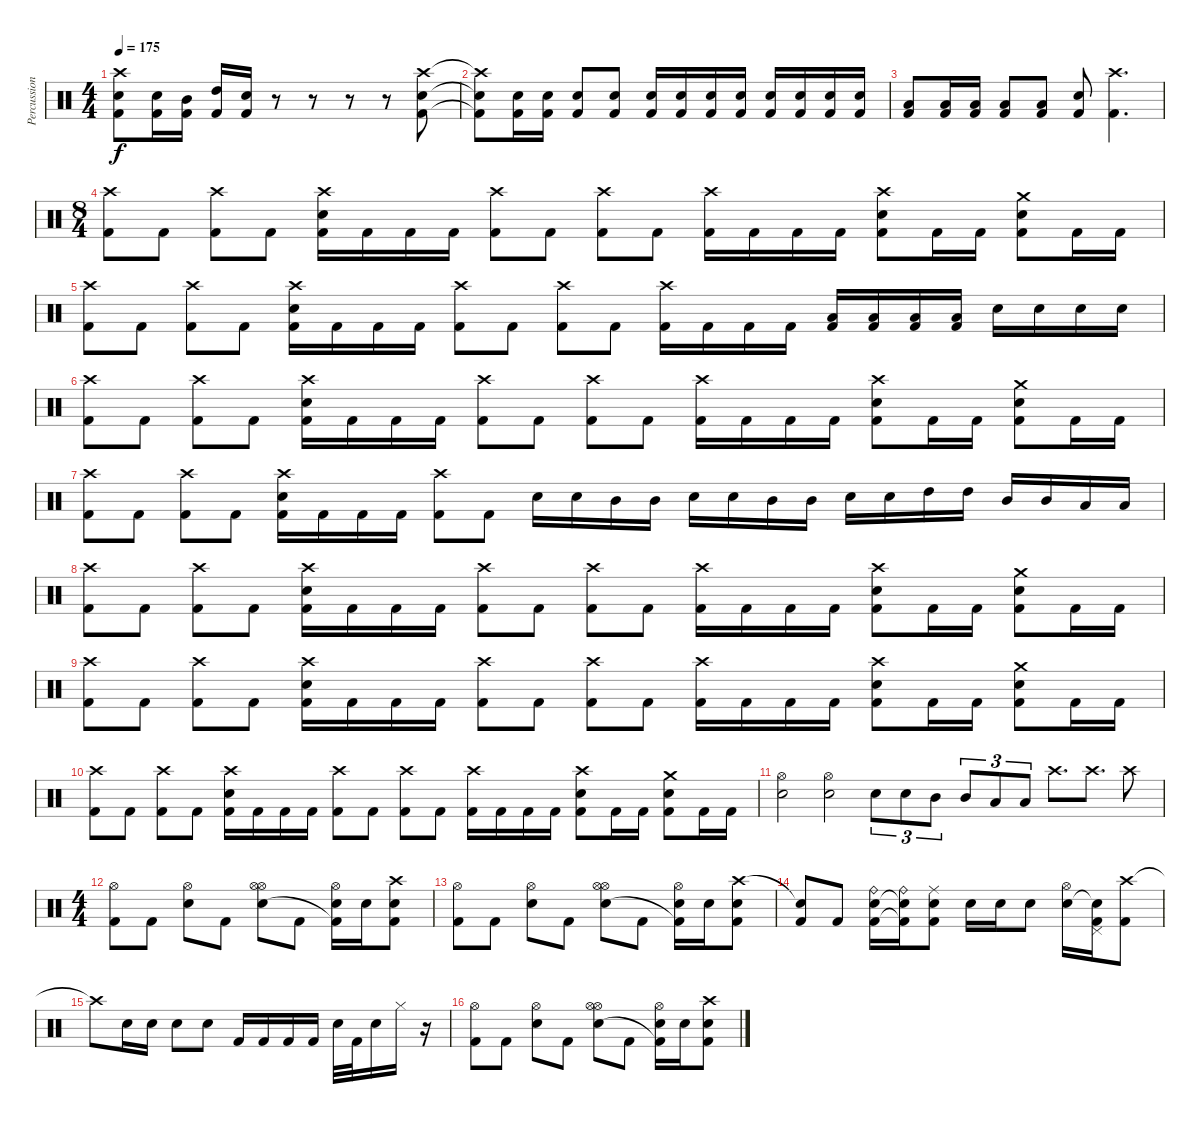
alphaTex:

\track ("Percussion" "Percussion") {instrument percussion}
\staff {score}
\articulation defaults
\ts (4 4)
\tempo 175
\clef neutral
\ks c
("Crash high (hit)"{t} "Snare (hit) 2"{t} "Kick (hit) 2"{t}).8{dy f} ("Snare (hit) 2" "Kick (hit) 2").16 ("Mid Tom (hit)" "Kick (hit) 2").16 ("High Tom (hit)" "Kick (hit) 2").16 ("Snare (hit) 2" "Kick (hit) 2").16 r.8 r.8 r.8 r.8 ("Crash high (hit)" "Snare (hit) 2" "Kick (hit) 2").8 |
("Crash high (hit)"{t} "Snare (hit) 2"{t} "Kick (hit) 2"{t}).8 ("Electric Snare (hit)" "Kick (hit) 2").16 ("Electric Snare (hit)" "Kick (hit) 2").16 ("Electric Snare (hit)" "Kick (hit) 2").8 ("Electric Snare (hit)" "Kick (hit) 2").8 ("Electric Snare (hit)" "Kick (hit) 2").16 ("Electric Snare (hit)" "Kick (hit) 2").16 ("Electric Snare (hit)" "Kick (hit) 2").16 ("Electric Snare (hit)" "Kick (hit) 2").16 ("Electric Snare (hit)" "Kick (hit) 2").16 ("Electric Snare (hit)" "Kick (hit) 2").16 ("Electric Snare (hit)" "Kick (hit) 2").16 ("Electric Snare (hit)" "Kick (hit) 2").16 |
("Low Tom (hit)" "Kick (hit) 2").8 ("Low Tom (hit)" "Kick (hit) 2").16 ("Low Tom (hit)" "Kick (hit) 2").16 ("Low Tom (hit)" "Kick (hit) 2").8 ("Low Tom (hit)" "Kick (hit) 2").8 ("Electric Snare (hit)" "Kick (hit) 2").8 ("Crash high (hit)" "Kick (hit) 2").4{d} |
\ts (8 4)
("Crash high (hit)" "Kick (hit) 2").8 "Kick (hit) 2".8 ("Crash high (hit)" "Kick (hit) 2").8 "Kick (hit) 2".8 ("Crash high (hit)" "Electric Snare (hit)" "Kick (hit) 2").16 "Kick (hit) 2".16 "Kick (hit) 2".16 "Kick (hit) 2".16 ("Crash high (hit)" "Kick (hit) 2").8 "Kick (hit) 2".8 ("Crash high (hit)" "Kick (hit) 2").8 "Kick (hit) 2".8 ("Crash high (hit)" "Kick (hit) 2").16 "Kick (hit) 2".16 "Kick (hit) 2".16 "Kick (hit) 2".16 ("Crash high (hit)" "Electric Snare (hit)" "Kick (hit) 2").8 "Kick (hit) 2".16 "Kick (hit) 2".16 ("Crash medium (hit)" "Electric Snare (hit)" "Kick (hit) 2").8 "Kick (hit) 2".16 "Kick (hit) 2".16 |
("Crash high (hit)" "Kick (hit) 2").8 "Kick (hit) 2".8 ("Crash high (hit)" "Kick (hit) 2").8 "Kick (hit) 2".8 ("Crash high (hit)" "Electric Snare (hit)" "Kick (hit) 2").16 "Kick (hit) 2".16 "Kick (hit) 2".16 "Kick (hit) 2".16 ("Crash high (hit)" "Kick (hit) 2").8 "Kick (hit) 2".8 ("Crash high (hit)" "Kick (hit) 2").8 "Kick (hit) 2".8 ("Crash high (hit)" "Kick (hit) 2").16 "Kick (hit) 2".16 "Kick (hit) 2".16 "Kick (hit) 2".16 ("Low Tom (hit)" "Kick (hit) 2").16 ("Low Tom (hit)" "Kick (hit) 2").16 ("Low Tom (hit)" "Kick (hit) 2").16 ("Low Tom (hit)" "Kick (hit) 2").16 "Electric Snare (hit)".16 "Electric Snare (hit)".16 "Electric Snare (hit)".16 "Electric Snare (hit)".16 |
("Crash high (hit)" "Kick (hit) 2").8 "Kick (hit) 2".8 ("Crash high (hit)" "Kick (hit) 2").8 "Kick (hit) 2".8 ("Crash high (hit)" "Electric Snare (hit)" "Kick (hit) 2").16 "Kick (hit) 2".16 "Kick (hit) 2".16 "Kick (hit) 2".16 ("Crash high (hit)" "Kick (hit) 2").8 "Kick (hit) 2".8 ("Crash high (hit)" "Kick (hit) 2").8 "Kick (hit) 2".8 ("Crash high (hit)" "Kick (hit) 2").16 "Kick (hit) 2".16 "Kick (hit) 2".16 "Kick (hit) 2".16 ("Crash high (hit)" "Electric Snare (hit)" "Kick (hit) 2").8 "Kick (hit) 2".16 "Kick (hit) 2".16 ("Crash medium (hit)" "Electric Snare (hit)" "Kick (hit) 2").8 "Kick (hit) 2".16 "Kick (hit) 2".16 |
("Crash high (hit)" "Kick (hit) 2").8 "Kick (hit) 2".8 ("Crash high (hit)" "Kick (hit) 2").8 "Kick (hit) 2".8 ("Crash high (hit)" "Electric Snare (hit)" "Kick (hit) 2").16 "Kick (hit) 2".16 "Kick (hit) 2".16 "Kick (hit) 2".16 ("Crash high (hit)" "Kick (hit) 2").8 "Kick (hit) 2".8 "Electric Snare (hit)".16 "Electric Snare (hit)".16 "Mid Tom (hit)".16 "Mid Tom (hit)".16 "Electric Snare (hit)".16 "Electric Snare (hit)".16 "Mid Tom (hit)".16 "Mid Tom (hit)".16 "Electric Snare (hit)".16 "Electric Snare (hit)".16 "High Tom (hit)".16 "High Tom (hit)".16 "Mid Tom (hit)".16 "Mid Tom (hit)".16 "Low Tom (hit)".16 "Low Tom (hit)".16 |
("Crash high (hit)" "Kick (hit) 2").8 "Kick (hit) 2".8 ("Crash high (hit)" "Kick (hit) 2").8 "Kick (hit) 2".8 ("Crash high (hit)" "Electric Snare (hit)" "Kick (hit) 2").16 "Kick (hit) 2".16 "Kick (hit) 2".16 "Kick (hit) 2".16 ("Crash high (hit)" "Kick (hit) 2").8 "Kick (hit) 2".8 ("Crash high (hit)" "Kick (hit) 2").8 "Kick (hit) 2".8 ("Crash high (hit)" "Kick (hit) 2").16 "Kick (hit) 2".16 "Kick (hit) 2".16 "Kick (hit) 2".16 ("Crash high (hit)" "Electric Snare (hit)" "Kick (hit) 2").8 "Kick (hit) 2".16 "Kick (hit) 2".16 ("Crash medium (hit)" "Electric Snare (hit)" "Kick (hit) 2").8 "Kick (hit) 2".16 "Kick (hit) 2".16 |
("Crash high (hit)" "Kick (hit) 2").8 "Kick (hit) 2".8 ("Crash high (hit)" "Kick (hit) 2").8 "Kick (hit) 2".8 ("Crash high (hit)" "Electric Snare (hit)" "Kick (hit) 2").16 "Kick (hit) 2".16 "Kick (hit) 2".16 "Kick (hit) 2".16 ("Crash high (hit)" "Kick (hit) 2").8 "Kick (hit) 2".8 ("Crash high (hit)" "Kick (hit) 2").8 "Kick (hit) 2".8 ("Crash high (hit)" "Kick (hit) 2").16 "Kick (hit) 2".16 "Kick (hit) 2".16 "Kick (hit) 2".16 ("Crash high (hit)" "Electric Snare (hit)" "Kick (hit) 2").8 "Kick (hit) 2".16 "Kick (hit) 2".16 ("Crash medium (hit)" "Electric Snare (hit)" "Kick (hit) 2").8 "Kick (hit) 2".16 "Kick (hit) 2".16 |
("Crash high (hit)" "Kick (hit) 2").8 "Kick (hit) 2".8 ("Crash high (hit)" "Kick (hit) 2").8 "Kick (hit) 2".8 ("Crash high (hit)" "Electric Snare (hit)" "Kick (hit) 2").16 "Kick (hit) 2".16 "Kick (hit) 2".16 "Kick (hit) 2".16 ("Crash high (hit)" "Kick (hit) 2").8 "Kick (hit) 2".8 ("Crash high (hit)" "Kick (hit) 2").8 "Kick (hit) 2".8 ("Crash high (hit)" "Kick (hit) 2").16 "Kick (hit) 2".16 "Kick (hit) 2".16 "Kick (hit) 2".16 ("Crash high (hit)" "Electric Snare (hit)" "Kick (hit) 2").8 "Kick (hit) 2".16 "Kick (hit) 2".16 ("Crash medium (hit)" "Electric Snare (hit)" "Kick (hit) 2").8 "Kick (hit) 2".16 "Kick (hit) 2".16 |
("Hi-Hat (open)" "Electric Snare (hit)").2 ("Hi-Hat (open)" "Electric Snare (hit)").2 "Electric Snare (hit)".8{tu (3 2)} "Electric Snare (hit)".8{tu (3 2)} "Mid Tom (hit)".8{tu (3 2)} "Mid Tom (hit)".8{tu (3 2)} "Low Tom (hit)".8{tu (3 2)} "Low Tom (hit)".8{tu (3 2)} "Crash high (hit)".8{d} "Crash high (hit)".8{d} "Crash high (hit)".8 |
\ts (4 4)
("Hi-Hat (open)" "Kick (hit) 2").8 "Kick (hit) 2".8 ("Hi-Hat (open)" "Snare (hit) 2").8 "Kick (hit) 2".8 ("Hi-Hat (open)" "Hi-Hat (open)" "Snare (hit) 2").8 "Kick (hit) 2".8 ("Hi-Hat (open)" "Snare (hit) 2" "Kick (hit) 2"{t}).16 "Snare (hit) 2".16 ("Crash high (hit)" "Snare (hit) 2" "Kick (hit) 2").8 |
("Hi-Hat (open)" "Kick (hit) 2").8 "Kick (hit) 2".8 ("Hi-Hat (open)" "Snare (hit) 2").8 "Kick (hit) 2".8 ("Hi-Hat (open)" "Hi-Hat (open)" "Snare (hit) 2").8 "Kick (hit) 2".8 ("Hi-Hat (open)" "Snare (hit) 2" "Kick (hit) 2"{t}).16 "Snare (hit) 2".16 ("Crash high (hit)" "Snare (hit) 2" "Kick (hit) 2").8 |
("Snare (hit) 2"{t} "Kick (hit) 2").8 "Kick (hit) 2".8 ("Ride (bell)" "Snare (hit) 2" "Kick (hit) 2").16 ("Ride (bell)" "Snare (hit) 2"{t} "Kick (hit) 2"{t}).16 ("Ride (middle)" "Snare (hit) 2" "Kick (hit) 2").8 "Snare (hit) 2".16 "Snare (hit) 2".16 "Snare (hit) 2".8 ("Hi-Hat (open)" "Snare (hit) 2").16 ("Pedal Hi-Hat (hit)" "Snare (hit) 2"{t} "Kick (hit) 2").16 ("Crash high (hit)" "Kick (hit) 2").8 |
"Crash high (hit)"{t}.8 "Snare (hit) 2".16 "Snare (hit) 2".16 "Snare (hit) 2".8 "Snare (hit) 2".8 "Kick (hit) 2".16 "Kick (hit) 2".16 "Kick (hit) 2".16 "Kick (hit) 2".16 "Snare (hit) 2".32 "Kick (hit) 2".32 "Snare (hit) 2".16 "Hi-Hat (closed)".16 r.16 |
("Hi-Hat (open)" "Kick (hit) 2").8 "Kick (hit) 2".8 ("Hi-Hat (open)" "Snare (hit) 2").8 "Kick (hit) 2".8 ("Hi-Hat (open)" "Hi-Hat (open)" "Snare (hit) 2").8 "Kick (hit) 2".8 ("Hi-Hat (open)" "Snare (hit) 2" "Kick (hit) 2"{t}).16 "Snare (hit) 2".16 ("Crash high (hit)" "Snare (hit) 2" "Kick (hit) 2").8
